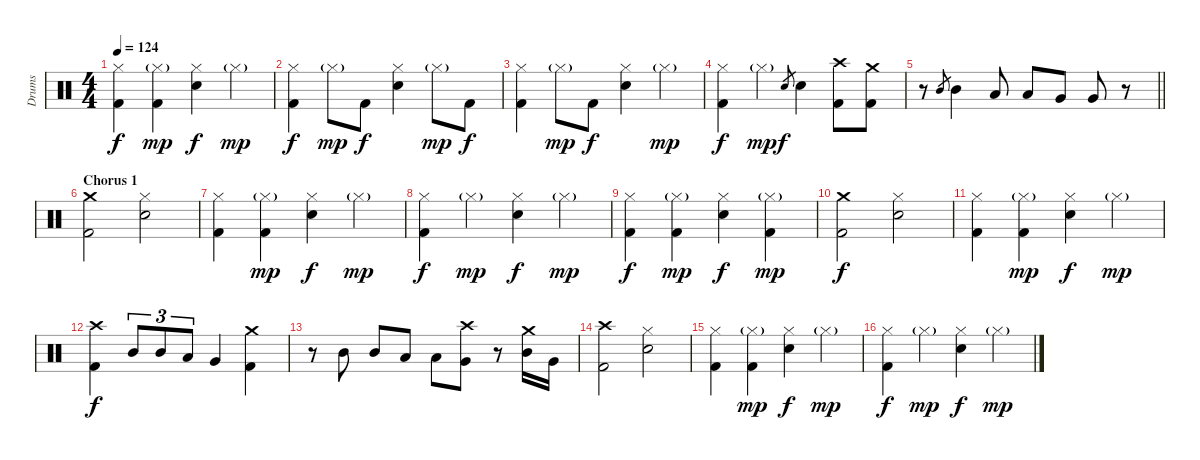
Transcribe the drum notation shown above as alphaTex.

\track ("Drums" "Drums") {instrument percussion}
\staff {score}
\articulation defaults
\ts (4 4)
\tempo 124
\clef neutral
\ks c
("Hi-Hat (closed)" "Kick (hit) 2").4{dy f} ("Hi-Hat (closed)"{g} "Kick (hit) 2").4{dy mp} ("Hi-Hat (closed)" "Snare (hit) 2").4{dy f} "Hi-Hat (closed)"{g}.4{dy mp} |
("Hi-Hat (closed)" "Kick (hit) 2").4{dy f} "Hi-Hat (closed)"{g}.8{dy mp} "Kick (hit) 2".8{dy f} ("Hi-Hat (closed)" "Snare (hit) 2").4 "Hi-Hat (closed)"{g}.8{dy mp} "Kick (hit) 2".8{dy f} |
("Hi-Hat (closed)" "Kick (hit) 2").4 "Hi-Hat (closed)"{g}.8{dy mp} "Kick (hit) 2".8{dy f} ("Hi-Hat (closed)" "Snare (hit) 2").4 "Hi-Hat (closed)"{g}.4{dy mp} |
("Hi-Hat (closed)" "Kick (hit) 2").4{dy f} "Hi-Hat (closed)"{g}.4{dy mp} "Snare (hit) 2".8{gr dy f} "Snare (hit) 2".4 ("Crash high (hit)" "Kick (hit) 2").8 ("Crash medium (hit)" "Kick (hit) 2").8 |
\barLineRight lightlight
r.8 "Mid Tom (hit)".8{gr} "Mid Tom (hit)".4 "Low Tom (hit)".8 "Low Tom (hit)".8 "Very Low Tom (hit)".8 "Very Low Tom (hit)".8 r.8 |
\section ("" "Chorus 1")
("Crash medium (hit)" "Kick (hit) 2").2 ("Hi-Hat (closed)" "Snare (hit) 2").2 |
("Hi-Hat (closed)" "Kick (hit) 2").4 ("Hi-Hat (closed)"{g} "Kick (hit) 2").4{dy mp} ("Hi-Hat (closed)" "Snare (hit) 2").4{dy f} "Hi-Hat (closed)"{g}.4{dy mp} |
("Hi-Hat (closed)" "Kick (hit) 2").4{dy f} "Hi-Hat (closed)"{g}.4{dy mp} ("Hi-Hat (closed)" "Snare (hit) 2").4{dy f} "Hi-Hat (closed)"{g}.4{dy mp} |
("Hi-Hat (closed)" "Kick (hit) 2").4{dy f} ("Hi-Hat (closed)"{g} "Kick (hit) 2").4{dy mp} ("Hi-Hat (closed)" "Snare (hit) 2").4{dy f} ("Hi-Hat (closed)"{g} "Kick (hit) 2").4{dy mp} |
("Crash medium (hit)" "Kick (hit) 2").2{dy f} ("Hi-Hat (closed)" "Snare (hit) 2").2 |
("Hi-Hat (closed)" "Kick (hit) 2").4 ("Hi-Hat (closed)"{g} "Kick (hit) 2").4{dy mp} ("Hi-Hat (closed)" "Snare (hit) 2").4{dy f} "Hi-Hat (closed)"{g}.4{dy mp} |
("Crash high (hit)" "Kick (hit) 2").4{dy f} "Mid Tom (hit)".8{tu (3 2)} "Mid Tom (hit)".8{tu (3 2)} "Low Tom (hit)".8{tu (3 2)} "Very Low Tom (hit)".4 ("Crash medium (hit)" "Kick (hit) 2").4 |
r.8 "Mid Tom (hit)".8 "Mid Tom (hit)".8 "Low Tom (hit)".8 "Low Tom (hit)".8 ("Crash high (hit)" "Very Low Tom (hit)").8 r.8 ("Crash medium (hit)" "Mid Tom (hit)").16 "Very Low Tom (hit)".16 |
("Crash high (hit)" "Kick (hit) 2").2 ("Hi-Hat (closed)" "Snare (hit) 2").2 |
("Hi-Hat (closed)" "Kick (hit) 2").4 ("Hi-Hat (closed)"{g} "Kick (hit) 2").4{dy mp} ("Hi-Hat (closed)" "Snare (hit) 2").4{dy f} "Hi-Hat (closed)"{g}.4{dy mp} |
("Hi-Hat (closed)" "Kick (hit) 2").4{dy f} "Hi-Hat (closed)"{g}.4{dy mp} ("Hi-Hat (closed)" "Snare (hit) 2").4{dy f} "Hi-Hat (closed)"{g}.4{dy mp}
